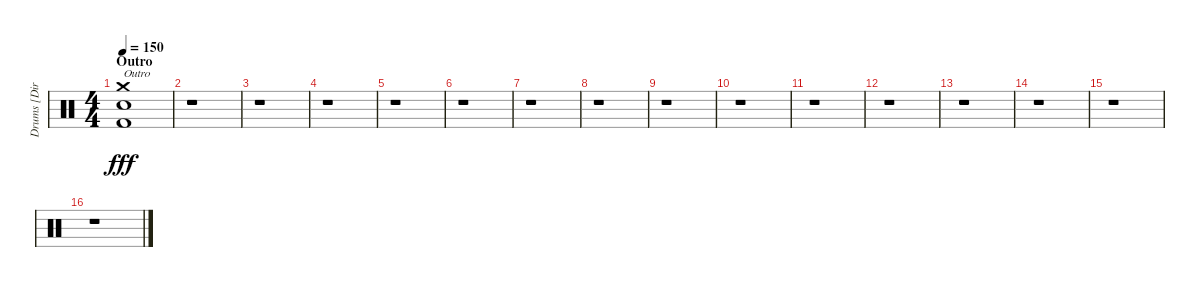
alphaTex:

\track ("Drums [Dirge Rep]" "Drums [Dir") {instrument percussion}
\staff {score}
\articulation defaults
\ts (4 4)
\section ("" "Outro")
\tempo 150
\clef neutral
\ks c
("Crash medium (hit)" "Electric Snare (hit)" "Kick (hit) 2").1{txt "Outro" dy fff} |
r.1 |
r.1 |
r.1 |
r.1 |
r.1 |
r.1 |
r.1 |
r.1 |
r.1 |
r.1 |
r.1 |
r.1 |
r.1 |
r.1 |
r.1
